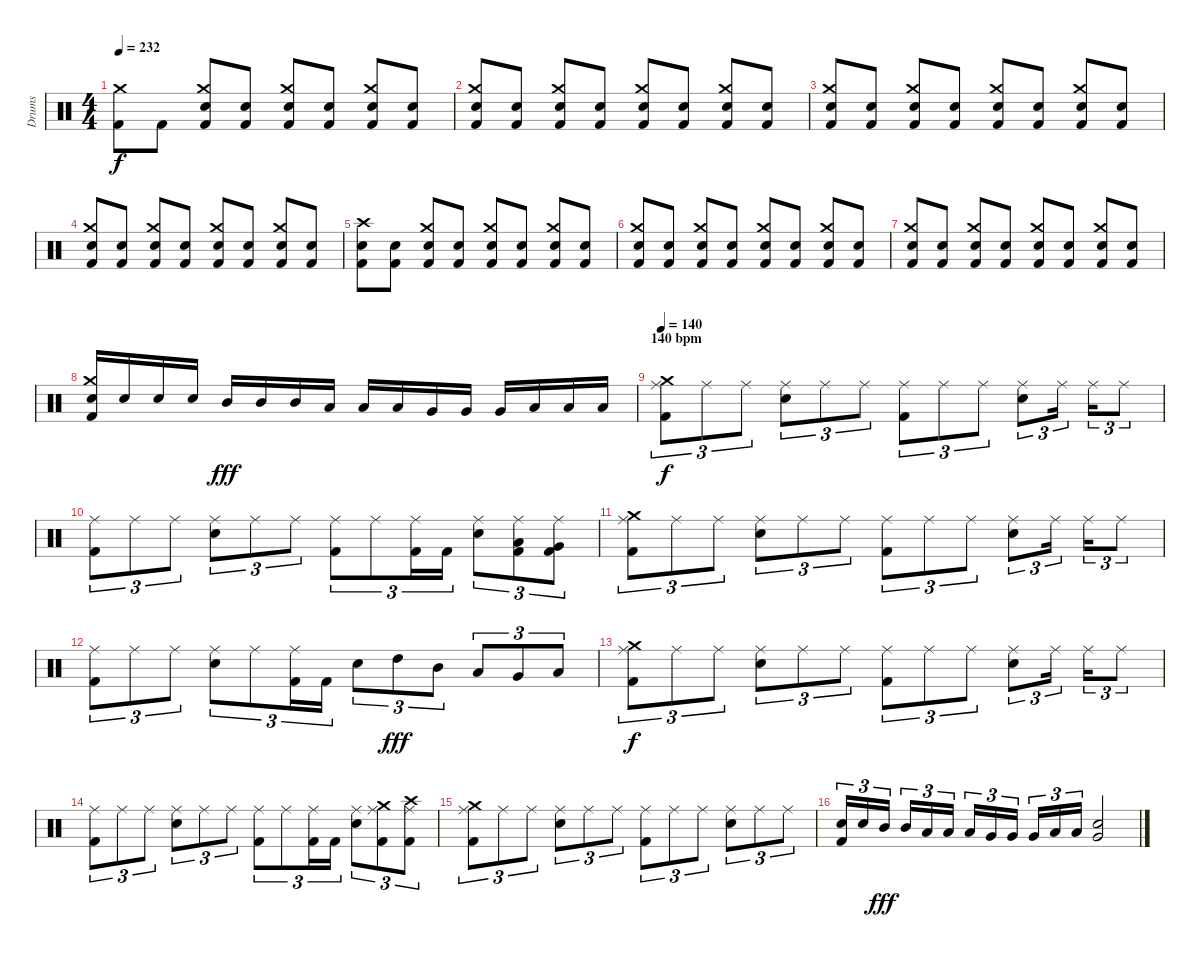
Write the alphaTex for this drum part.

\track ("Drums" "Drums") {instrument percussion}
\staff {score}
\articulation defaults
\ts (4 4)
\tempo 232
\clef neutral
\ks c
("Kick (hit) 2" "Crash medium (hit)").8{dy f} "Kick (hit) 2".8 ("Kick (hit) 2" "Snare (hit) 2" "Crash medium (hit)").8 ("Kick (hit) 2" "Snare (hit) 2").8 ("Kick (hit) 2" "Snare (hit) 2" "Crash medium (hit)").8 ("Kick (hit) 2" "Snare (hit) 2").8 ("Kick (hit) 2" "Snare (hit) 2" "Crash medium (hit)").8 ("Kick (hit) 2" "Snare (hit) 2").8 |
("Kick (hit) 2" "Snare (hit) 2" "Crash medium (hit)").8 ("Kick (hit) 2" "Snare (hit) 2").8 ("Kick (hit) 2" "Snare (hit) 2" "Crash medium (hit)").8 ("Kick (hit) 2" "Snare (hit) 2").8 ("Kick (hit) 2" "Snare (hit) 2" "Crash medium (hit)").8 ("Kick (hit) 2" "Snare (hit) 2").8 ("Kick (hit) 2" "Snare (hit) 2" "Crash medium (hit)").8 ("Kick (hit) 2" "Snare (hit) 2").8 |
("Kick (hit) 2" "Snare (hit) 2" "Crash medium (hit)").8 ("Kick (hit) 2" "Snare (hit) 2").8 ("Kick (hit) 2" "Snare (hit) 2" "Crash medium (hit)").8 ("Kick (hit) 2" "Snare (hit) 2").8 ("Kick (hit) 2" "Snare (hit) 2" "Crash medium (hit)").8 ("Kick (hit) 2" "Snare (hit) 2").8 ("Kick (hit) 2" "Snare (hit) 2" "Crash medium (hit)").8 ("Kick (hit) 2" "Snare (hit) 2").8 |
("Kick (hit) 2" "Snare (hit) 2" "Crash medium (hit)").8 ("Kick (hit) 2" "Snare (hit) 2").8 ("Kick (hit) 2" "Snare (hit) 2" "Crash medium (hit)").8 ("Kick (hit) 2" "Snare (hit) 2").8 ("Kick (hit) 2" "Snare (hit) 2" "Crash medium (hit)").8 ("Kick (hit) 2" "Snare (hit) 2").8 ("Kick (hit) 2" "Snare (hit) 2" "Crash medium (hit)").8 ("Kick (hit) 2" "Snare (hit) 2").8 |
("Kick (hit) 2" "Snare (hit) 2" "Crash high (hit)").8 ("Kick (hit) 2" "Snare (hit) 2").8 ("Kick (hit) 2" "Snare (hit) 2" "Crash medium (hit)").8 ("Kick (hit) 2" "Snare (hit) 2").8 ("Kick (hit) 2" "Snare (hit) 2" "Crash medium (hit)").8 ("Kick (hit) 2" "Snare (hit) 2").8 ("Kick (hit) 2" "Snare (hit) 2" "Crash medium (hit)").8 ("Kick (hit) 2" "Snare (hit) 2").8 |
("Kick (hit) 2" "Snare (hit) 2" "Crash medium (hit)").8 ("Kick (hit) 2" "Snare (hit) 2").8 ("Kick (hit) 2" "Snare (hit) 2" "Crash medium (hit)").8 ("Kick (hit) 2" "Snare (hit) 2").8 ("Kick (hit) 2" "Snare (hit) 2" "Crash medium (hit)").8 ("Kick (hit) 2" "Snare (hit) 2").8 ("Kick (hit) 2" "Snare (hit) 2" "Crash medium (hit)").8 ("Kick (hit) 2" "Snare (hit) 2").8 |
("Kick (hit) 2" "Snare (hit) 2" "Crash medium (hit)").8 ("Kick (hit) 2" "Snare (hit) 2").8 ("Kick (hit) 2" "Snare (hit) 2" "Crash medium (hit)").8 ("Kick (hit) 2" "Snare (hit) 2").8 ("Kick (hit) 2" "Snare (hit) 2" "Crash medium (hit)").8 ("Kick (hit) 2" "Snare (hit) 2").8 ("Kick (hit) 2" "Snare (hit) 2" "Crash medium (hit)").8 ("Kick (hit) 2" "Snare (hit) 2").8 |
("Kick (hit) 2" "Electric Snare (hit)" "Crash medium (hit)").16 "Electric Snare (hit)".16 "Electric Snare (hit)".16 "Electric Snare (hit)".16 "Mid Tom (hit)".16{dy fff} "Mid Tom (hit)".16 "Mid Tom (hit)".16 "Low Tom (hit)".16 "Low Tom (hit)".16 "Low Tom (hit)".16 "Very Low Tom (hit)".16 "Very Low Tom (hit)".16 "Very Low Tom (hit)".16 "Low Floor Tom (hit)".16 "Low Floor Tom (hit)".16 "Low Floor Tom (hit)".16 |
\section ("" "140 bpm")
\tempo 140
("Kick (hit) 2" "Ride (middle)" "Crash medium (hit)").8{tu (3 2) dy f} "Ride (middle)".8{tu (3 2)} "Ride (middle)".8{tu (3 2)} ("Snare (hit) 2" "Ride (middle)").8{tu (3 2)} "Ride (middle)".8{tu (3 2)} "Ride (middle)".8{tu (3 2)} ("Kick (hit) 2" "Ride (middle)").8{tu (3 2)} "Ride (middle)".8{tu (3 2)} "Ride (middle)".8{tu (3 2)} ("Snare (hit) 2" "Ride (middle)").8{tu (3 2)} "Ride (middle)".16{tu (3 2)} "Ride (middle)".16{tu (3 2)} "Ride (middle)".8{tu (3 2)} |
("Kick (hit) 2" "Ride (middle)").8{tu (3 2)} "Ride (middle)".8{tu (3 2)} "Ride (middle)".8{tu (3 2)} ("Snare (hit) 2" "Ride (middle)").8{tu (3 2)} "Ride (middle)".8{tu (3 2)} "Ride (middle)".8{tu (3 2)} ("Kick (hit) 2" "Ride (middle)").8{tu (3 2)} "Ride (middle)".8{tu (3 2)} ("Kick (hit) 2" "Ride (middle)").16{tu (3 2)} "Kick (hit) 2".16{tu (3 2)} ("Snare (hit) 2" "Ride (middle)").8{tu (3 2)} ("Kick (hit) 2" "Low Tom (hit)" "Ride (middle)").8{tu (3 2)} ("Kick (hit) 2" "Very Low Tom (hit)" "Ride (middle)").8{tu (3 2)} |
("Kick (hit) 2" "Ride (middle)" "Crash medium (hit)").8{tu (3 2)} "Ride (middle)".8{tu (3 2)} "Ride (middle)".8{tu (3 2)} ("Snare (hit) 2" "Ride (middle)").8{tu (3 2)} "Ride (middle)".8{tu (3 2)} "Ride (middle)".8{tu (3 2)} ("Kick (hit) 2" "Ride (middle)").8{tu (3 2)} "Ride (middle)".8{tu (3 2)} "Ride (middle)".8{tu (3 2)} ("Snare (hit) 2" "Ride (middle)").8{tu (3 2)} "Ride (middle)".16{tu (3 2)} "Ride (middle)".16{tu (3 2)} "Ride (middle)".8{tu (3 2)} |
("Kick (hit) 2" "Ride (middle)").8{tu (3 2)} "Ride (middle)".8{tu (3 2)} "Ride (middle)".8{tu (3 2)} ("Snare (hit) 2" "Ride (middle)").8{tu (3 2)} "Ride (middle)".8{tu (3 2)} ("Kick (hit) 2" "Ride (middle)").16{tu (3 2)} "Kick (hit) 2".16{tu (3 2)} "Electric Snare (hit)".8{tu (3 2)} "High Tom (hit)".8{tu (3 2) dy fff} "Mid Tom (hit)".8{tu (3 2)} "Low Tom (hit)".8{tu (3 2)} "Very Low Tom (hit)".8{tu (3 2)} "Low Floor Tom (hit)".8{tu (3 2)} |
("Kick (hit) 2" "Ride (middle)" "Crash medium (hit)").8{tu (3 2) dy f} "Ride (middle)".8{tu (3 2)} "Ride (middle)".8{tu (3 2)} ("Snare (hit) 2" "Ride (middle)").8{tu (3 2)} "Ride (middle)".8{tu (3 2)} "Ride (middle)".8{tu (3 2)} ("Kick (hit) 2" "Ride (middle)").8{tu (3 2)} "Ride (middle)".8{tu (3 2)} "Ride (middle)".8{tu (3 2)} ("Snare (hit) 2" "Ride (middle)").8{tu (3 2)} "Ride (middle)".16{tu (3 2)} "Ride (middle)".16{tu (3 2)} "Ride (middle)".8{tu (3 2)} |
("Kick (hit) 2" "Ride (middle)").8{tu (3 2)} "Ride (middle)".8{tu (3 2)} "Ride (middle)".8{tu (3 2)} ("Snare (hit) 2" "Ride (middle)").8{tu (3 2)} "Ride (middle)".8{tu (3 2)} "Ride (middle)".8{tu (3 2)} ("Kick (hit) 2" "Ride (middle)").8{tu (3 2)} "Ride (middle)".8{tu (3 2)} ("Kick (hit) 2" "Ride (middle)").16{tu (3 2)} "Kick (hit) 2".16{tu (3 2)} ("Snare (hit) 2" "Ride (middle)").8{tu (3 2)} ("Kick (hit) 2" "Ride (middle)" "Crash medium (hit)").8{tu (3 2)} ("Kick (hit) 2" "Ride (middle)" "Crash high (hit)").8{tu (3 2)} |
("Kick (hit) 2" "Ride (middle)" "Crash medium (hit)").8{tu (3 2)} "Ride (middle)".8{tu (3 2)} "Ride (middle)".8{tu (3 2)} ("Snare (hit) 2" "Ride (middle)").8{tu (3 2)} "Ride (middle)".8{tu (3 2)} "Ride (middle)".8{tu (3 2)} ("Kick (hit) 2" "Ride (middle)").8{tu (3 2)} "Ride (middle)".8{tu (3 2)} "Ride (middle)".8{tu (3 2)} ("Snare (hit) 2" "Ride (middle)").8{tu (3 2)} "Ride (middle)".8{tu (3 2)} "Ride (middle)".8{tu (3 2)} |
("Kick (hit) 2" "Electric Snare (hit)").16{tu (3 2)} "Electric Snare (hit)".16{tu (3 2)} "Mid Tom (hit)".16{tu (3 2) dy fff} "Mid Tom (hit)".16{tu (3 2)} "Low Tom (hit)".16{tu (3 2)} "Low Tom (hit)".16{tu (3 2)} "Low Tom (hit)".16{tu (3 2)} "Very Low Tom (hit)".16{tu (3 2)} "Very Low Tom (hit)".16{tu (3 2)} "Very Low Tom (hit)".16{tu (3 2)} "Low Floor Tom (hit)".16{tu (3 2)} "Low Floor Tom (hit)".16{tu (3 2)} ("Electric Snare (hit)" "Very Low Tom (hit)").2
